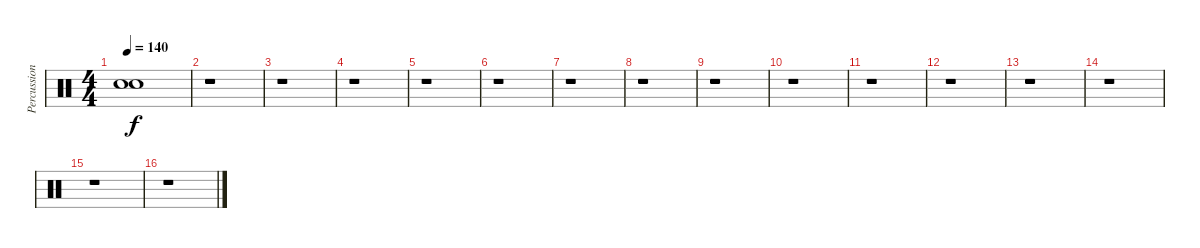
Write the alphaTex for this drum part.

\track ("Percussion" "Percussion") {instrument percussion}
\staff {score}
\articulation defaults
\ts (4 4)
\tempo 140
\clef neutral
\ks c
("Snare (hit)"{t} "Snare (hit)"{t}).1{dy f} |
r.1 |
r.1 |
r.1 |
r.1 |
r.1 |
r.1 |
r.1 |
r.1 |
r.1 |
r.1 |
r.1 |
r.1 |
r.1 |
r.1 |
r.1
